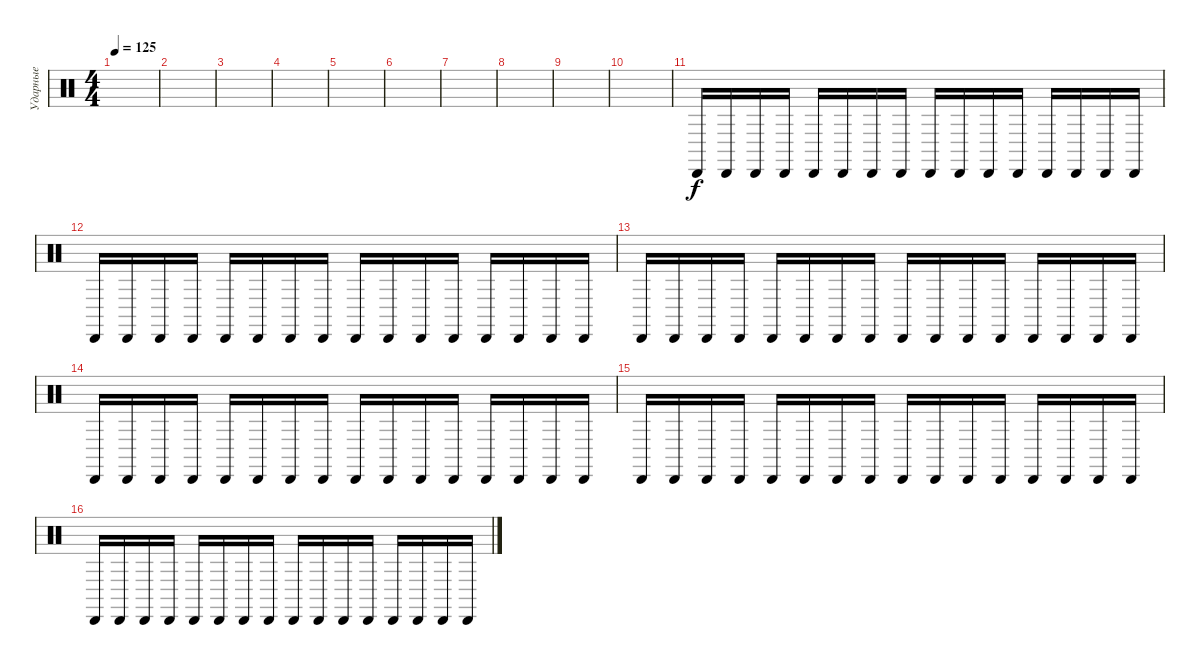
\track ("Ударные" "Ударные") {instrument percussion}
\staff {score}
\articulation defaults
\ts (4 4)
\tempo 125
\clef neutral
\ks c
|
|
|
|
|
|
|
|
|
|
"Cabasa (hit)".16 "Cabasa (hit)".16 "Cabasa (hit)".16 "Cabasa (hit)".16 "Cabasa (hit)".16 "Cabasa (hit)".16 "Cabasa (hit)".16 "Cabasa (hit)".16 "Cabasa (hit)".16 "Cabasa (hit)".16 "Cabasa (hit)".16 "Cabasa (hit)".16 "Cabasa (hit)".16 "Cabasa (hit)".16 "Cabasa (hit)".16 "Cabasa (hit)".16 |
"Cabasa (hit)".16 "Cabasa (hit)".16 "Cabasa (hit)".16 "Cabasa (hit)".16 "Cabasa (hit)".16 "Cabasa (hit)".16 "Cabasa (hit)".16 "Cabasa (hit)".16 "Cabasa (hit)".16 "Cabasa (hit)".16 "Cabasa (hit)".16 "Cabasa (hit)".16 "Cabasa (hit)".16 "Cabasa (hit)".16 "Cabasa (hit)".16 "Cabasa (hit)".16 |
"Cabasa (hit)".16 "Cabasa (hit)".16 "Cabasa (hit)".16 "Cabasa (hit)".16 "Cabasa (hit)".16 "Cabasa (hit)".16 "Cabasa (hit)".16 "Cabasa (hit)".16 "Cabasa (hit)".16 "Cabasa (hit)".16 "Cabasa (hit)".16 "Cabasa (hit)".16 "Cabasa (hit)".16 "Cabasa (hit)".16 "Cabasa (hit)".16 "Cabasa (hit)".16 |
"Cabasa (hit)".16 "Cabasa (hit)".16 "Cabasa (hit)".16 "Cabasa (hit)".16 "Cabasa (hit)".16 "Cabasa (hit)".16 "Cabasa (hit)".16 "Cabasa (hit)".16 "Cabasa (hit)".16 "Cabasa (hit)".16 "Cabasa (hit)".16 "Cabasa (hit)".16 "Cabasa (hit)".16 "Cabasa (hit)".16 "Cabasa (hit)".16 "Cabasa (hit)".16 |
"Cabasa (hit)".16 "Cabasa (hit)".16 "Cabasa (hit)".16 "Cabasa (hit)".16 "Cabasa (hit)".16 "Cabasa (hit)".16 "Cabasa (hit)".16 "Cabasa (hit)".16 "Cabasa (hit)".16 "Cabasa (hit)".16 "Cabasa (hit)".16 "Cabasa (hit)".16 "Cabasa (hit)".16 "Cabasa (hit)".16 "Cabasa (hit)".16 "Cabasa (hit)".16 |
"Cabasa (hit)".16 "Cabasa (hit)".16 "Cabasa (hit)".16 "Cabasa (hit)".16 "Cabasa (hit)".16 "Cabasa (hit)".16 "Cabasa (hit)".16 "Cabasa (hit)".16 "Cabasa (hit)".16 "Cabasa (hit)".16 "Cabasa (hit)".16 "Cabasa (hit)".16 "Cabasa (hit)".16 "Cabasa (hit)".16 "Cabasa (hit)".16 "Cabasa (hit)".16
